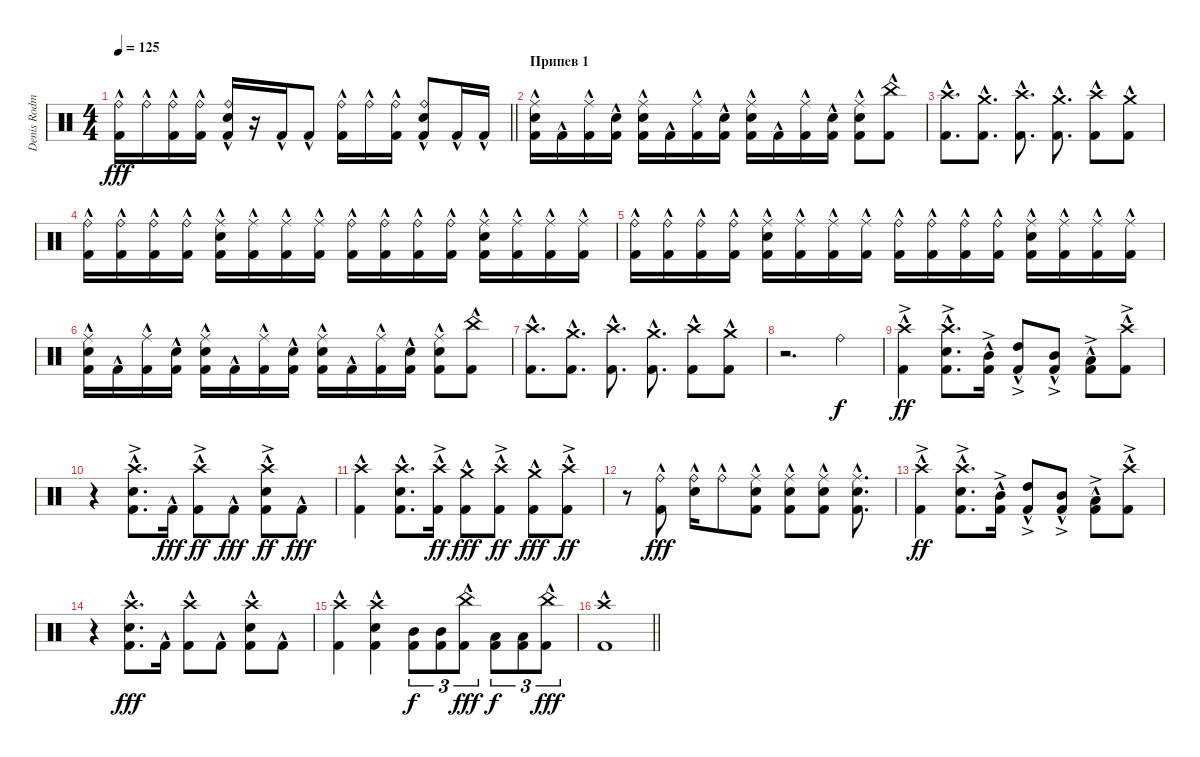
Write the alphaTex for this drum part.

\track ("Denis Rodman" "Denis Rodm") {instrument percussion}
\staff {score}
\articulation defaults
\ts (4 4)
\tempo 125
\clef neutral
\barLineRight lightlight
\ks c
("Kick (hit) 2"{hac} "Ride (bell)"{hac}).16{dy fff} "Ride (bell)"{hac}.16 ("Kick (hit) 2"{hac} "Ride (bell)"{hac}).16 ("Kick (hit) 2"{hac} "Ride (bell)"{hac}).16 ("Kick (hit) 2"{hac} "Snare (hit) 2" "Ride (bell)").16 r.16 "Kick (hit) 2"{hac}.16 "Kick (hit) 2"{hac}.8 ("Kick (hit) 2"{hac} "Ride (bell)"{hac}).16 "Ride (bell)"{hac}.16 ("Kick (hit) 2"{hac} "Ride (bell)"{hac}).16 ("Kick (hit) 2"{hac} "Snare (hit) 2" "Ride (bell)"{hac}).8 "Kick (hit) 2"{hac}.16 "Kick (hit) 2"{hac}.16 |
\section ("" "Припев 1")
("Kick (hit) 2"{hac} "Snare (hit) 2" "Ride (middle)"{hac}).16 "Kick (hit) 2"{hac}.16 ("Kick (hit) 2"{hac} "Ride (middle)"{hac}).16 ("Kick (hit) 2"{hac} "Snare (hit) 2").16 ("Kick (hit) 2"{hac} "Snare (hit) 2" "Ride (middle)"{hac}).16 "Kick (hit) 2"{hac}.16 ("Kick (hit) 2"{hac} "Ride (middle)"{hac}).16 ("Kick (hit) 2"{hac} "Snare (hit) 2").16 ("Kick (hit) 2"{hac} "Snare (hit) 2" "Ride (middle)"{hac}).16 "Kick (hit) 2"{hac}.16 ("Kick (hit) 2"{hac} "Ride (middle)"{hac}).16 ("Kick (hit) 2"{hac} "Snare (hit) 2").16 ("Kick (hit) 2"{hac} "Snare (hit) 2" "Ride (middle)"{hac}).8 ("Kick (hit) 2"{hac} "China (hit)"{hac}).8 |
("Kick (hit) 2"{hac} "Crash high (hit)").8{d} ("Kick (hit) 2"{hac} "Crash medium (hit)").8{d} ("Kick (hit) 2"{hac} "Crash high (hit)").8{d} ("Kick (hit) 2"{hac} "Crash medium (hit)").8{d} ("Kick (hit) 2"{hac} "Crash high (hit)").8 ("Kick (hit) 2"{hac} "Crash medium (hit)").8 |
("Kick (hit) 2"{hac} "Ride (bell)"{hac}).16 ("Kick (hit) 2"{hac} "Ride (bell)"{hac}).16 ("Kick (hit) 2"{hac} "Ride (bell)"{hac}).16 ("Kick (hit) 2"{hac} "Ride (bell)"{hac}).16 ("Kick (hit) 2"{hac} "Snare (hit) 2" "Ride (middle)"{hac}).16 ("Kick (hit) 2"{hac} "Ride (middle)"{hac}).16 ("Kick (hit) 2"{hac} "Ride (middle)"{hac}).16 ("Kick (hit) 2"{hac} "Ride (middle)"{hac}).16 ("Kick (hit) 2"{hac} "Ride (bell)"{hac}).16 ("Kick (hit) 2"{hac} "Ride (bell)"{hac}).16 ("Kick (hit) 2"{hac} "Ride (bell)"{hac}).16 ("Kick (hit) 2"{hac} "Ride (bell)"{hac}).16 ("Kick (hit) 2"{hac} "Snare (hit) 2" "Ride (middle)"{hac}).16 ("Kick (hit) 2"{hac} "Ride (middle)"{hac}).16 ("Kick (hit) 2"{hac} "Ride (middle)"{hac}).16 ("Kick (hit) 2"{hac} "Ride (middle)"{hac}).16 |
("Kick (hit) 2"{hac} "Ride (bell)"{hac}).16 ("Kick (hit) 2"{hac} "Ride (bell)"{hac}).16 ("Kick (hit) 2"{hac} "Ride (bell)"{hac}).16 ("Kick (hit) 2"{hac} "Ride (bell)"{hac}).16 ("Kick (hit) 2"{hac} "Snare (hit) 2" "Ride (middle)"{hac}).16 ("Kick (hit) 2"{hac} "Ride (middle)"{hac}).16 ("Kick (hit) 2"{hac} "Ride (middle)"{hac}).16 ("Kick (hit) 2"{hac} "Ride (middle)"{hac}).16 ("Kick (hit) 2"{hac} "Ride (bell)"{hac}).16 ("Kick (hit) 2"{hac} "Ride (bell)"{hac}).16 ("Kick (hit) 2"{hac} "Ride (bell)"{hac}).16 ("Kick (hit) 2"{hac} "Ride (bell)"{hac}).16 ("Kick (hit) 2"{hac} "Snare (hit) 2" "Ride (middle)"{hac}).16 ("Kick (hit) 2"{hac} "Ride (middle)"{hac}).16 ("Kick (hit) 2"{hac} "Ride (middle)"{hac}).16 ("Kick (hit) 2"{hac} "Ride (middle)"{hac}).16 |
("Kick (hit) 2"{hac} "Snare (hit) 2" "Ride (middle)"{hac}).16 "Kick (hit) 2"{hac}.16 ("Kick (hit) 2"{hac} "Ride (middle)"{hac}).16 ("Kick (hit) 2"{hac} "Snare (hit) 2").16 ("Kick (hit) 2"{hac} "Snare (hit) 2" "Ride (middle)"{hac}).16 "Kick (hit) 2"{hac}.16 ("Kick (hit) 2"{hac} "Ride (middle)"{hac}).16 ("Kick (hit) 2"{hac} "Snare (hit) 2").16 ("Kick (hit) 2"{hac} "Snare (hit) 2" "Ride (middle)"{hac}).16 "Kick (hit) 2"{hac}.16 ("Kick (hit) 2"{hac} "Ride (middle)"{hac}).16 ("Kick (hit) 2"{hac} "Snare (hit) 2").16 ("Kick (hit) 2"{hac} "Snare (hit) 2" "Ride (middle)"{hac}).8 ("Kick (hit) 2"{hac} "China (hit)"{hac}).8 |
("Kick (hit) 2"{hac} "Crash high (hit)").8{d} ("Kick (hit) 2"{hac} "Crash medium (hit)").8{d} ("Kick (hit) 2"{hac} "Crash high (hit)").8{d} ("Kick (hit) 2"{hac} "Crash medium (hit)").8{d} ("Kick (hit) 2"{hac} "Crash high (hit)").8 ("Kick (hit) 2"{hac} "Crash medium (hit)").8 |
r.2{d} "Ride (bell)".4{dy f} |
("Kick (hit) 2"{hac} "Crash high (hit)"{ac}).4{dy ff} ("Kick (hit) 2"{hac} "Snare (hit) 2" "Crash high (hit)"{ac}).8{d} ("Kick (hit) 2"{hac} "Mid Tom (hit)"{ac}).16 ("Kick (hit) 2"{hac} "High Tom (hit)"{ac}).8 ("Kick (hit) 2"{hac} "Mid Tom (hit)"{ac}).8 ("Kick (hit) 2"{hac} "Low Tom (hit)"{ac}).8 ("Kick (hit) 2"{hac} "Crash high (hit)"{ac}).8 |
r.4 ("Kick (hit) 2"{hac} "Snare (hit) 2" "Crash high (hit)"{ac}).8{d} "Kick (hit) 2"{hac}.16{dy fff} ("Kick (hit) 2"{hac} "Crash high (hit)"{ac}).8{dy ff} "Kick (hit) 2"{hac}.8{dy fff} ("Kick (hit) 2"{hac} "Snare (hit) 2" "Crash high (hit)"{ac}).8{dy ff} "Kick (hit) 2"{hac}.8{dy fff} |
("Kick (hit) 2"{hac} "Crash high (hit)"{hac}).4 ("Kick (hit) 2"{hac} "Snare (hit) 2" "Crash high (hit)"{hac}).8{d} ("Kick (hit) 2"{hac} "Crash high (hit)"{ac}).16{dy ff} ("Kick (hit) 2"{hac} "Crash medium (hit)"{hac}).8{dy fff} ("Kick (hit) 2"{hac} "Crash high (hit)"{ac}).8{dy ff} ("Kick (hit) 2"{hac} "Crash medium (hit)"{hac}).8{dy fff} ("Kick (hit) 2"{hac} "Crash high (hit)"{ac}).8{dy ff} |
r.8 ("Ride (bell)"{hac} "Kick (hit) 2"{hac}).8{dy fff} ("Ride (bell)"{hac} "Snare (hit) 2").16 "Ride (bell)"{hac}.8 ("Kick (hit) 2"{hac} "Snare (hit) 2" "Ride (middle)"{hac}).8 ("Kick (hit) 2"{hac} "Snare (hit) 2" "Ride (middle)"{hac}).8 ("Kick (hit) 2"{hac} "Snare (hit) 2" "Ride (middle)"{hac}).8 ("Kick (hit) 2"{hac} "Snare (hit) 2" "Ride (middle)"{hac}).8{d} |
("Kick (hit) 2"{hac} "Crash high (hit)"{ac}).4{dy ff} ("Kick (hit) 2"{hac} "Snare (hit) 2" "Crash high (hit)"{ac}).8{d} ("Kick (hit) 2"{hac} "Mid Tom (hit)"{ac}).16 ("Kick (hit) 2"{hac} "High Tom (hit)"{ac}).8 ("Kick (hit) 2"{hac} "Mid Tom (hit)"{ac}).8 ("Kick (hit) 2"{hac} "Low Tom (hit)"{ac}).8 ("Kick (hit) 2"{hac} "Crash high (hit)"{ac}).8 |
r.4 ("Kick (hit) 2"{hac} "Snare (hit) 2" "Crash high (hit)").8{d dy fff} "Kick (hit) 2"{hac}.16 ("Kick (hit) 2"{hac} "Crash high (hit)").8 "Kick (hit) 2"{hac}.8 ("Kick (hit) 2"{hac} "Snare (hit) 2" "Crash high (hit)").8 "Kick (hit) 2"{hac}.8 |
("Kick (hit) 2"{hac} "Crash high (hit)").4 ("Kick (hit) 2"{hac} "Snare (hit) 2" "Crash high (hit)").4 ("Mid Tom (hit)" "Kick (hit) 2").8{tu (3 2) dy f} ("Mid Tom (hit)" "Kick (hit) 2").8{tu (3 2)} ("China (hit)"{hac} "Kick (hit) 2").8{tu (3 2) dy fff} ("Low Tom (hit)" "Kick (hit) 2").8{tu (3 2) dy f} ("Low Tom (hit)" "Kick (hit) 2").8{tu (3 2)} ("China (hit)"{hac} "Kick (hit) 2").8{tu (3 2) dy fff} |
\barLineRight lightlight
("Kick (hit) 2"{hac} "Crash high (hit)").1
